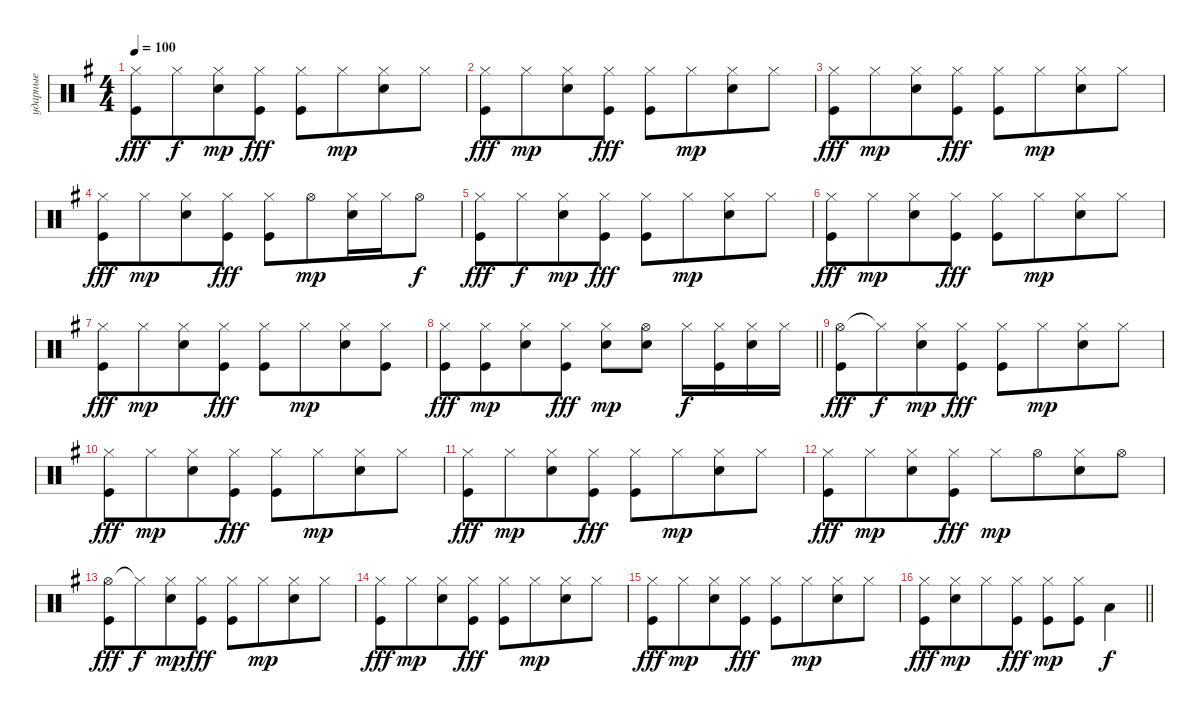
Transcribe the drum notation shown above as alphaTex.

\track ("ударные" "ударные") {instrument percussion}
\staff {score}
\articulation defaults
\ts (4 4)
\tempo 100
\clef neutral
\ks eminor
("Hi-Hat (closed)" "Kick (hit)").8{dy fff} "Hi-Hat (closed)".8{dy f beam merge} ("Hi-Hat (closed)" "Snare (hit) 2").8{dy mp} ("Hi-Hat (closed)" "Kick (hit)").8{dy fff} ("Hi-Hat (closed)" "Kick (hit)").8 "Hi-Hat (closed)".8{dy mp beam merge} ("Hi-Hat (closed)" "Snare (hit) 2").8 "Hi-Hat (closed)".8 |
("Hi-Hat (closed)" "Kick (hit)").8{dy fff} "Hi-Hat (closed)".8{dy mp beam merge} ("Hi-Hat (closed)" "Snare (hit) 2").8 ("Hi-Hat (closed)" "Kick (hit)").8{dy fff} ("Hi-Hat (closed)" "Kick (hit)").8 "Hi-Hat (closed)".8{dy mp beam merge} ("Hi-Hat (closed)" "Snare (hit) 2").8 "Hi-Hat (closed)".8 |
("Hi-Hat (closed)" "Kick (hit)").8{dy fff} "Hi-Hat (closed)".8{dy mp beam merge} ("Hi-Hat (closed)" "Snare (hit) 2").8 ("Hi-Hat (closed)" "Kick (hit)").8{dy fff} ("Hi-Hat (closed)" "Kick (hit)").8 "Hi-Hat (closed)".8{dy mp beam merge} ("Hi-Hat (closed)" "Snare (hit) 2").8 "Hi-Hat (closed)".8 |
("Hi-Hat (closed)" "Kick (hit)").8{dy fff} "Hi-Hat (closed)".8{dy mp beam merge} ("Hi-Hat (closed)" "Snare (hit) 2").8 ("Hi-Hat (closed)" "Kick (hit)").8{dy fff} ("Hi-Hat (closed)" "Kick (hit)").8 "Hi-Hat (open)".8{dy mp beam merge} ("Hi-Hat (closed)" "Snare (hit) 2").16 "Hi-Hat (closed)".16 "Hi-Hat (open)".8{dy f} |
("Hi-Hat (closed)" "Kick (hit)").8{dy fff} "Hi-Hat (closed)".8{dy f beam merge} ("Hi-Hat (closed)" "Snare (hit) 2").8{dy mp} ("Hi-Hat (closed)" "Kick (hit)").8{dy fff} ("Hi-Hat (closed)" "Kick (hit)").8 "Hi-Hat (closed)".8{dy mp beam merge} ("Hi-Hat (closed)" "Snare (hit) 2").8 "Hi-Hat (closed)".8 |
("Hi-Hat (closed)" "Kick (hit)").8{dy fff} "Hi-Hat (closed)".8{dy mp beam merge} ("Hi-Hat (closed)" "Snare (hit) 2").8 ("Hi-Hat (closed)" "Kick (hit)").8{dy fff} ("Hi-Hat (closed)" "Kick (hit)").8 "Hi-Hat (closed)".8{dy mp beam merge} ("Hi-Hat (closed)" "Snare (hit) 2").8 "Hi-Hat (closed)".8 |
("Hi-Hat (closed)" "Kick (hit)").8{dy fff} "Hi-Hat (closed)".8{dy mp beam merge} ("Hi-Hat (closed)" "Snare (hit) 2").8 ("Hi-Hat (closed)" "Kick (hit)").8{dy fff} ("Hi-Hat (closed)" "Kick (hit)").8 "Hi-Hat (closed)".8{dy mp beam merge} ("Hi-Hat (closed)" "Snare (hit) 2").8 ("Hi-Hat (closed)" "Kick (hit)").8 |
\barLineRight lightlight
("Hi-Hat (closed)" "Kick (hit)").8{dy fff} ("Hi-Hat (closed)" "Kick (hit)").8{dy mp beam merge} ("Hi-Hat (closed)" "Snare (hit) 2").8 ("Hi-Hat (closed)" "Kick (hit)").8{dy fff} ("Hi-Hat (closed)" "Snare (hit) 2").8{dy mp} ("Hi-Hat (open)" "Snare (hit) 2").8 "Hi-Hat (closed)".16{dy f} ("Hi-Hat (closed)" "Kick (hit)").16 ("Hi-Hat (closed)" "Snare (hit) 2").16 "Hi-Hat (closed)".16 |
\section ("" "")
("Hi-Hat (open)" "Kick (hit)").8{dy fff} "Hi-Hat (closed)"{t}.8{dy f beam merge} ("Hi-Hat (closed)" "Snare (hit) 2").8{dy mp} ("Hi-Hat (closed)" "Kick (hit)").8{dy fff} ("Hi-Hat (closed)" "Kick (hit)").8 "Hi-Hat (closed)".8{dy mp beam merge} ("Hi-Hat (closed)" "Snare (hit) 2").8 "Hi-Hat (closed)".8 |
("Hi-Hat (closed)" "Kick (hit)").8{dy fff} "Hi-Hat (closed)".8{dy mp beam merge} ("Hi-Hat (closed)" "Snare (hit) 2").8 ("Hi-Hat (closed)" "Kick (hit)").8{dy fff} ("Hi-Hat (closed)" "Kick (hit)").8 "Hi-Hat (closed)".8{dy mp beam merge} ("Hi-Hat (closed)" "Snare (hit) 2").8 "Hi-Hat (closed)".8 |
("Hi-Hat (closed)" "Kick (hit)").8{dy fff} "Hi-Hat (closed)".8{dy mp beam merge} ("Hi-Hat (closed)" "Snare (hit) 2").8 ("Hi-Hat (closed)" "Kick (hit)").8{dy fff} ("Hi-Hat (closed)" "Kick (hit)").8 "Hi-Hat (closed)".8{dy mp beam merge} ("Hi-Hat (closed)" "Snare (hit) 2").8 "Hi-Hat (closed)".8 |
("Hi-Hat (closed)" "Kick (hit)").8{dy fff} "Hi-Hat (closed)".8{dy mp beam merge} ("Hi-Hat (closed)" "Snare (hit) 2").8 ("Hi-Hat (closed)" "Kick (hit)").8{dy fff} "Hi-Hat (closed)".8{dy mp} "Hi-Hat (open)".8{beam merge} ("Hi-Hat (closed)" "Snare (hit) 2").8 "Hi-Hat (open)".8 |
("Hi-Hat (open)" "Kick (hit)").8{dy fff} "Hi-Hat (closed)"{t}.8{dy f beam merge} ("Hi-Hat (closed)" "Snare (hit) 2").8{dy mp} ("Hi-Hat (closed)" "Kick (hit)").8{dy fff} ("Hi-Hat (closed)" "Kick (hit)").8 "Hi-Hat (closed)".8{dy mp beam merge} ("Hi-Hat (closed)" "Snare (hit) 2").8 "Hi-Hat (closed)".8 |
("Hi-Hat (closed)" "Kick (hit)").8{dy fff} "Hi-Hat (closed)".8{dy mp beam merge} ("Hi-Hat (closed)" "Snare (hit) 2").8 ("Hi-Hat (closed)" "Kick (hit)").8{dy fff} ("Hi-Hat (closed)" "Kick (hit)").8 "Hi-Hat (closed)".8{dy mp beam merge} ("Hi-Hat (closed)" "Snare (hit) 2").8 "Hi-Hat (closed)".8 |
("Hi-Hat (closed)" "Kick (hit)").8{dy fff} "Hi-Hat (closed)".8{dy mp beam merge} ("Hi-Hat (closed)" "Snare (hit) 2").8 ("Hi-Hat (closed)" "Kick (hit)").8{dy fff} ("Hi-Hat (closed)" "Kick (hit)").8 "Hi-Hat (closed)".8{dy mp beam merge} ("Hi-Hat (closed)" "Snare (hit) 2").8 "Hi-Hat (closed)".8 |
\barLineRight lightlight
("Hi-Hat (closed)" "Kick (hit)").8{dy fff} ("Hi-Hat (closed)" "Snare (hit) 2").8{dy mp beam merge} "Hi-Hat (closed)".8 ("Hi-Hat (closed)" "Kick (hit)").8{dy fff} ("Hi-Hat (closed)" "Kick (hit)").8{dy mp} ("Hi-Hat (closed)" "Kick (hit)").8{beam merge} "Low Floor Tom (hit)".4{dy f}
